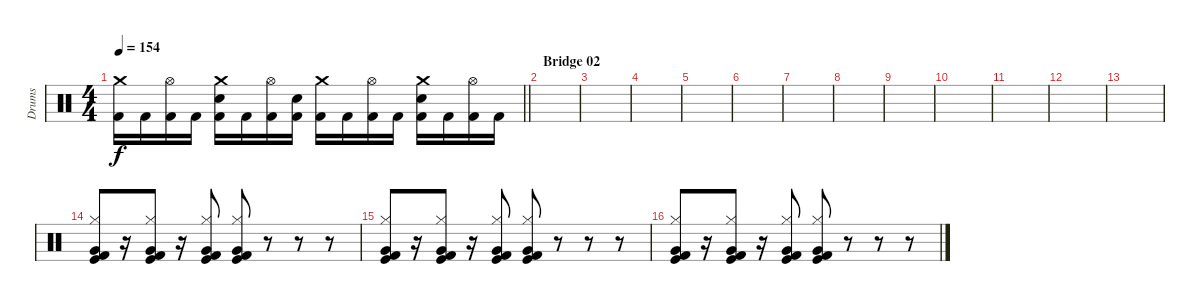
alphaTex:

\track ("Drums" "Drums") {instrument percussion}
\staff {score}
\articulation defaults
\ts (4 4)
\tempo 154
\clef neutral
\barLineRight lightlight
\ks c
("Kick (hit) 2" "Crash medium (hit)").16{dy f} "Kick (hit) 2".16 ("Kick (hit) 2" "Hi-Hat (open)").16 "Kick (hit) 2".16 ("Kick (hit) 2" "Electric Snare (hit)" "Crash medium (hit)").16 "Kick (hit) 2".16 ("Kick (hit) 2" "Hi-Hat (open)").16 ("Kick (hit) 2" "Electric Snare (hit)").16 ("Kick (hit) 2" "Crash medium (hit)").16 "Kick (hit) 2".16 ("Kick (hit) 2" "Hi-Hat (open)").16 "Kick (hit) 2".16 ("Kick (hit) 2" "Electric Snare (hit)" "Crash medium (hit)").16 "Kick (hit) 2".16 ("Kick (hit) 2" "Hi-Hat (open)").16 "Kick (hit) 2".16 |
\section ("" "Bridge 02")
|
|
|
|
|
|
|
|
|
|
|
|
("Kick (hit) 2" "Kick (hit)" "Hi-Hat (closed)" "Very Low Tom (hit)").8 r.16 ("Kick (hit) 2" "Kick (hit)" "Hi-Hat (closed)" "Very Low Tom (hit)").8 r.16 ("Kick (hit) 2" "Kick (hit)" "Hi-Hat (closed)" "Very Low Tom (hit)").8 ("Kick (hit) 2" "Kick (hit)" "Hi-Hat (closed)" "Very Low Tom (hit)").8 r.8 r.8 r.8 |
("Kick (hit) 2" "Kick (hit)" "Hi-Hat (closed)" "Very Low Tom (hit)").8 r.16 ("Kick (hit) 2" "Kick (hit)" "Hi-Hat (closed)" "Very Low Tom (hit)").8 r.16 ("Kick (hit) 2" "Kick (hit)" "Hi-Hat (closed)" "Very Low Tom (hit)").8 ("Kick (hit) 2" "Kick (hit)" "Hi-Hat (closed)" "Very Low Tom (hit)").8 r.8 r.8 r.8 |
("Kick (hit) 2" "Kick (hit)" "Hi-Hat (closed)" "Very Low Tom (hit)").8 r.16 ("Kick (hit) 2" "Kick (hit)" "Hi-Hat (closed)" "Very Low Tom (hit)").8 r.16 ("Kick (hit) 2" "Kick (hit)" "Hi-Hat (closed)" "Very Low Tom (hit)").8 ("Kick (hit) 2" "Kick (hit)" "Hi-Hat (closed)" "Very Low Tom (hit)").8 r.8 r.8 r.8
